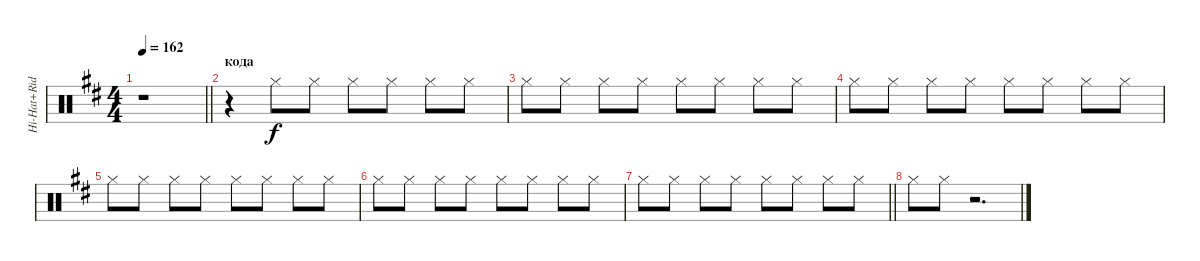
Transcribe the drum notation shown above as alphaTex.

\track ("Hi-Hat+Ride" "Hi-Hat+Rid") {instrument percussion}
\staff {score}
\articulation defaults
\ts (4 4)
\tempo 162
\clef neutral
\barLineRight lightlight
\ks bminor
r.1{dy f} |
\section ("" "кода")
r.4 "Hi-Hat (closed)".8 "Hi-Hat (closed)".8 "Hi-Hat (closed)".8 "Hi-Hat (closed)".8 "Hi-Hat (closed)".8 "Hi-Hat (closed)".8 |
"Hi-Hat (closed)".8 "Hi-Hat (closed)".8 "Hi-Hat (closed)".8 "Hi-Hat (closed)".8 "Hi-Hat (closed)".8 "Hi-Hat (closed)".8 "Hi-Hat (closed)".8 "Hi-Hat (closed)".8 |
"Hi-Hat (closed)".8 "Hi-Hat (closed)".8 "Hi-Hat (closed)".8 "Hi-Hat (closed)".8 "Hi-Hat (closed)".8 "Hi-Hat (closed)".8 "Hi-Hat (closed)".8 "Hi-Hat (closed)".8 |
"Hi-Hat (closed)".8 "Hi-Hat (closed)".8 "Hi-Hat (closed)".8 "Hi-Hat (closed)".8 "Hi-Hat (closed)".8 "Hi-Hat (closed)".8 "Hi-Hat (closed)".8 "Hi-Hat (closed)".8 |
"Hi-Hat (closed)".8 "Hi-Hat (closed)".8 "Hi-Hat (closed)".8 "Hi-Hat (closed)".8 "Hi-Hat (closed)".8 "Hi-Hat (closed)".8 "Hi-Hat (closed)".8 "Hi-Hat (closed)".8 |
\barLineRight lightlight "Hi-Hat (closed)".8 "Hi-Hat (closed)".8 "Hi-Hat (closed)".8 "Hi-Hat (closed)".8 "Hi-Hat (closed)".8 "Hi-Hat (closed)".8 "Hi-Hat (closed)".8 "Hi-Hat (closed)".8
|
"Hi-Hat (closed)".8 "Hi-Hat (closed)".8 r.2{d}
